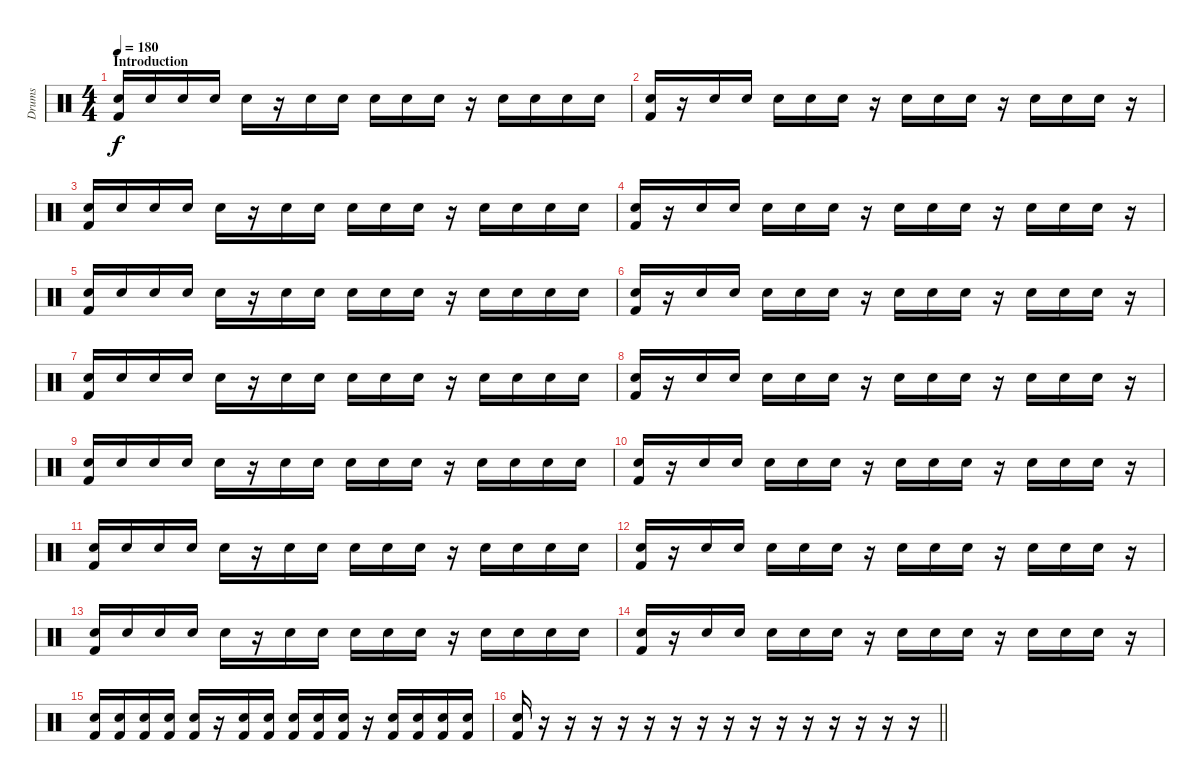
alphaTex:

\track ("Drums" "Drums") {instrument percussion}
\staff {score}
\articulation defaults
\ts (4 4)
\section ("" "Introduction")
\tempo 180
\clef neutral
\ks c
("Electric Snare (hit)" "Kick (hit) 2").16{dy f} "Electric Snare (hit)".16 "Electric Snare (hit)".16 "Electric Snare (hit)".16 "Electric Snare (hit)".16 r.16 "Electric Snare (hit)".16 "Electric Snare (hit)".16 "Electric Snare (hit)".16 "Electric Snare (hit)".16 "Electric Snare (hit)".16 r.16 "Electric Snare (hit)".16 "Electric Snare (hit)".16 "Electric Snare (hit)".16 "Electric Snare (hit)".16 |
("Electric Snare (hit)" "Kick (hit) 2").16 r.16 "Electric Snare (hit)".16 "Electric Snare (hit)".16 "Electric Snare (hit)".16 "Electric Snare (hit)".16 "Electric Snare (hit)".16 r.16 "Electric Snare (hit)".16 "Electric Snare (hit)".16 "Electric Snare (hit)".16 r.16 "Electric Snare (hit)".16 "Electric Snare (hit)".16 "Electric Snare (hit)".16 r.16 |
("Electric Snare (hit)" "Kick (hit) 2").16 "Electric Snare (hit)".16 "Electric Snare (hit)".16 "Electric Snare (hit)".16 "Electric Snare (hit)".16 r.16 "Electric Snare (hit)".16 "Electric Snare (hit)".16 "Electric Snare (hit)".16 "Electric Snare (hit)".16 "Electric Snare (hit)".16 r.16 "Electric Snare (hit)".16 "Electric Snare (hit)".16 "Electric Snare (hit)".16 "Electric Snare (hit)".16 |
("Electric Snare (hit)" "Kick (hit) 2").16 r.16 "Electric Snare (hit)".16 "Electric Snare (hit)".16 "Electric Snare (hit)".16 "Electric Snare (hit)".16 "Electric Snare (hit)".16 r.16 "Electric Snare (hit)".16 "Electric Snare (hit)".16 "Electric Snare (hit)".16 r.16 "Electric Snare (hit)".16 "Electric Snare (hit)".16 "Electric Snare (hit)".16 r.16 |
("Electric Snare (hit)" "Kick (hit) 2").16 "Electric Snare (hit)".16 "Electric Snare (hit)".16 "Electric Snare (hit)".16 "Electric Snare (hit)".16 r.16 "Electric Snare (hit)".16 "Electric Snare (hit)".16 "Electric Snare (hit)".16 "Electric Snare (hit)".16 "Electric Snare (hit)".16 r.16 "Electric Snare (hit)".16 "Electric Snare (hit)".16 "Electric Snare (hit)".16 "Electric Snare (hit)".16 |
("Electric Snare (hit)" "Kick (hit) 2").16 r.16 "Electric Snare (hit)".16 "Electric Snare (hit)".16 "Electric Snare (hit)".16 "Electric Snare (hit)".16 "Electric Snare (hit)".16 r.16 "Electric Snare (hit)".16 "Electric Snare (hit)".16 "Electric Snare (hit)".16 r.16 "Electric Snare (hit)".16 "Electric Snare (hit)".16 "Electric Snare (hit)".16 r.16 |
("Electric Snare (hit)" "Kick (hit) 2").16 "Electric Snare (hit)".16 "Electric Snare (hit)".16 "Electric Snare (hit)".16 "Electric Snare (hit)".16 r.16 "Electric Snare (hit)".16 "Electric Snare (hit)".16 "Electric Snare (hit)".16 "Electric Snare (hit)".16 "Electric Snare (hit)".16 r.16 "Electric Snare (hit)".16 "Electric Snare (hit)".16 "Electric Snare (hit)".16 "Electric Snare (hit)".16 |
("Electric Snare (hit)" "Kick (hit) 2").16 r.16 "Electric Snare (hit)".16 "Electric Snare (hit)".16 "Electric Snare (hit)".16 "Electric Snare (hit)".16 "Electric Snare (hit)".16 r.16 "Electric Snare (hit)".16 "Electric Snare (hit)".16 "Electric Snare (hit)".16 r.16 "Electric Snare (hit)".16 "Electric Snare (hit)".16 "Electric Snare (hit)".16 r.16 |
("Electric Snare (hit)" "Kick (hit) 2").16 "Electric Snare (hit)".16 "Electric Snare (hit)".16 "Electric Snare (hit)".16 "Electric Snare (hit)".16 r.16 "Electric Snare (hit)".16 "Electric Snare (hit)".16 "Electric Snare (hit)".16 "Electric Snare (hit)".16 "Electric Snare (hit)".16 r.16 "Electric Snare (hit)".16 "Electric Snare (hit)".16 "Electric Snare (hit)".16 "Electric Snare (hit)".16 |
("Electric Snare (hit)" "Kick (hit) 2").16 r.16 "Electric Snare (hit)".16 "Electric Snare (hit)".16 "Electric Snare (hit)".16 "Electric Snare (hit)".16 "Electric Snare (hit)".16 r.16 "Electric Snare (hit)".16 "Electric Snare (hit)".16 "Electric Snare (hit)".16 r.16 "Electric Snare (hit)".16 "Electric Snare (hit)".16 "Electric Snare (hit)".16 r.16 |
("Electric Snare (hit)" "Kick (hit) 2").16 "Electric Snare (hit)".16 "Electric Snare (hit)".16 "Electric Snare (hit)".16 "Electric Snare (hit)".16 r.16 "Electric Snare (hit)".16 "Electric Snare (hit)".16 "Electric Snare (hit)".16 "Electric Snare (hit)".16 "Electric Snare (hit)".16 r.16 "Electric Snare (hit)".16 "Electric Snare (hit)".16 "Electric Snare (hit)".16 "Electric Snare (hit)".16 |
("Electric Snare (hit)" "Kick (hit) 2").16 r.16 "Electric Snare (hit)".16 "Electric Snare (hit)".16 "Electric Snare (hit)".16 "Electric Snare (hit)".16 "Electric Snare (hit)".16 r.16 "Electric Snare (hit)".16 "Electric Snare (hit)".16 "Electric Snare (hit)".16 r.16 "Electric Snare (hit)".16 "Electric Snare (hit)".16 "Electric Snare (hit)".16 r.16 |
("Electric Snare (hit)" "Kick (hit) 2").16 "Electric Snare (hit)".16 "Electric Snare (hit)".16 "Electric Snare (hit)".16 "Electric Snare (hit)".16 r.16 "Electric Snare (hit)".16 "Electric Snare (hit)".16 "Electric Snare (hit)".16 "Electric Snare (hit)".16 "Electric Snare (hit)".16 r.16 "Electric Snare (hit)".16 "Electric Snare (hit)".16 "Electric Snare (hit)".16 "Electric Snare (hit)".16 |
("Electric Snare (hit)" "Kick (hit) 2").16 r.16 "Electric Snare (hit)".16 "Electric Snare (hit)".16 "Electric Snare (hit)".16 "Electric Snare (hit)".16 "Electric Snare (hit)".16 r.16 "Electric Snare (hit)".16 "Electric Snare (hit)".16 "Electric Snare (hit)".16 r.16 "Electric Snare (hit)".16 "Electric Snare (hit)".16 "Electric Snare (hit)".16 r.16 |
("Electric Snare (hit)" "Kick (hit) 2").16 ("Electric Snare (hit)" "Kick (hit) 2").16 ("Electric Snare (hit)" "Kick (hit) 2").16 ("Electric Snare (hit)" "Kick (hit) 2").16 ("Electric Snare (hit)" "Kick (hit) 2").16 r.16 ("Electric Snare (hit)" "Kick (hit) 2").16 ("Electric Snare (hit)" "Kick (hit) 2").16 ("Electric Snare (hit)" "Kick (hit) 2").16 ("Electric Snare (hit)" "Kick (hit) 2").16 ("Electric Snare (hit)" "Kick (hit) 2").16 r.16 ("Electric Snare (hit)" "Kick (hit) 2").16 ("Electric Snare (hit)" "Kick (hit) 2").16 ("Electric Snare (hit)" "Kick (hit) 2").16 ("Electric Snare (hit)" "Kick (hit) 2").16 |
\barLineRight lightlight
("Electric Snare (hit)" "Kick (hit) 2").16 r.16 r.16 r.16 r.16 r.16 r.16 r.16 r.16 r.16 r.16 r.16 r.16 r.16 r.16 r.16
